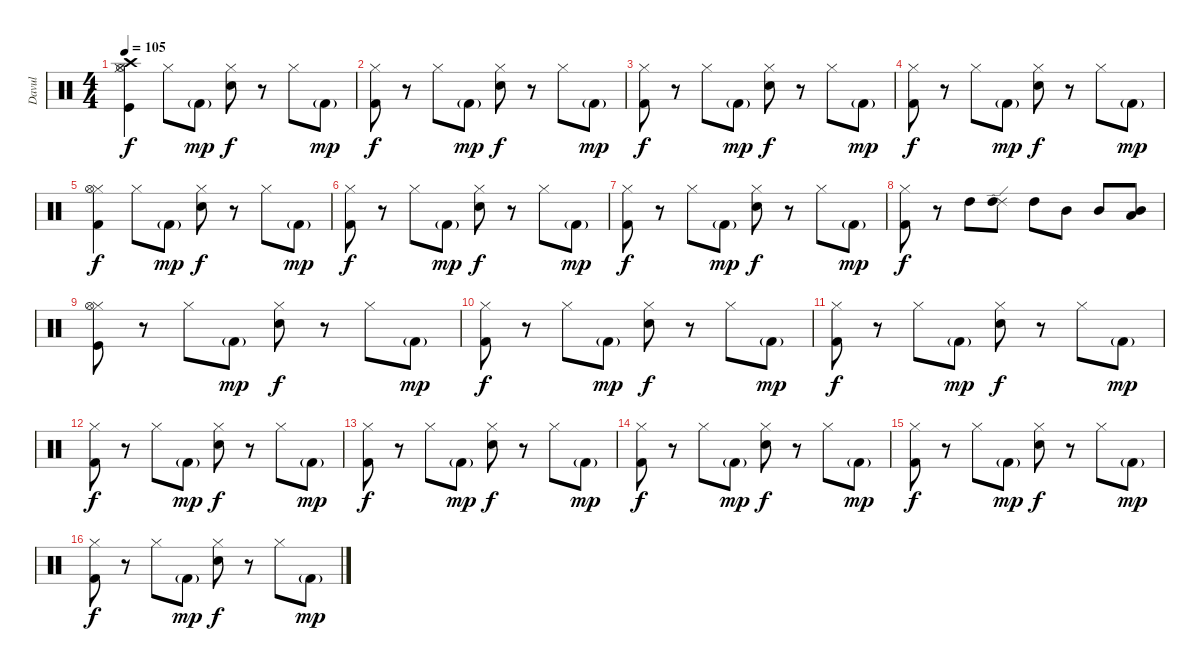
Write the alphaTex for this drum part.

\track ("Davul" "Davul") {instrument percussion}
\staff {score}
\articulation defaults
\ts (4 4)
\tempo 105
\clef neutral
\ks c
("Hi-Hat (closed)" "Kick (hit)" "Hi-Hat (open)" "Crash high (hit)").4{dy f} "Hi-Hat (closed)".8 "Kick (hit) 2"{g}.8{dy mp} ("Hi-Hat (closed)" "Electric Snare (hit)").8{dy f} r.8 "Hi-Hat (closed)".8 "Kick (hit) 2"{g}.8{dy mp} |
("Hi-Hat (closed)" "Kick (hit) 2").8{dy f} r.8 "Hi-Hat (closed)".8 "Kick (hit) 2"{g}.8{dy mp} ("Hi-Hat (closed)" "Electric Snare (hit)").8{dy f} r.8 "Hi-Hat (closed)".8 "Kick (hit) 2"{g}.8{dy mp} |
("Hi-Hat (closed)" "Kick (hit) 2").8{dy f} r.8 "Hi-Hat (closed)".8 "Kick (hit) 2"{g}.8{dy mp} ("Hi-Hat (closed)" "Electric Snare (hit)").8{dy f} r.8 "Hi-Hat (closed)".8 "Kick (hit) 2"{g}.8{dy mp} |
("Hi-Hat (closed)" "Kick (hit) 2").8{dy f} r.8 "Hi-Hat (closed)".8 "Kick (hit) 2"{g}.8{dy mp} ("Hi-Hat (closed)" "Electric Snare (hit)").8{dy f} r.8 "Hi-Hat (closed)".8 "Kick (hit) 2"{g}.8{dy mp} |
("Hi-Hat (closed)" "Kick (hit) 2" "Hi-Hat (open)").4{dy f} "Hi-Hat (closed)".8 "Kick (hit) 2"{g}.8{dy mp} ("Hi-Hat (closed)" "Electric Snare (hit)").8{dy f} r.8 "Hi-Hat (closed)".8 "Kick (hit) 2"{g}.8{dy mp} |
("Hi-Hat (closed)" "Kick (hit) 2").8{dy f} r.8 "Hi-Hat (closed)".8 "Kick (hit) 2"{g}.8{dy mp} ("Hi-Hat (closed)" "Electric Snare (hit)").8{dy f} r.8 "Hi-Hat (closed)".8 "Kick (hit) 2"{g}.8{dy mp} |
("Hi-Hat (closed)" "Kick (hit) 2").8{dy f} r.8 "Hi-Hat (closed)".8 "Kick (hit) 2"{g}.8{dy mp} ("Hi-Hat (closed)" "Electric Snare (hit)").8{dy f} r.8 "Hi-Hat (closed)".8 "Kick (hit) 2"{g}.8{dy mp} |
("Hi-Hat (closed)" "Kick (hit) 2").8{dy f} r.8 "High Tom (hit)".8 ("Ride (edge) 2" "High Tom (hit)").8 "High Tom (hit)".8 "Mid Tom (hit)".8 "Mid Tom (hit)".8 ("Low Floor Tom (hit)" "Mid Tom (hit)").8 |
("Hi-Hat (closed)" "Kick (hit)" "Hi-Hat (open)").8 r.8 "Hi-Hat (closed)".8 "Kick (hit) 2"{g}.8{dy mp} ("Hi-Hat (closed)" "Electric Snare (hit)").8{dy f} r.8 "Hi-Hat (closed)".8 "Kick (hit) 2"{g}.8{dy mp} |
("Hi-Hat (closed)" "Kick (hit) 2").8{dy f} r.8 "Hi-Hat (closed)".8 "Kick (hit) 2"{g}.8{dy mp} ("Hi-Hat (closed)" "Electric Snare (hit)").8{dy f} r.8 "Hi-Hat (closed)".8 "Kick (hit) 2"{g}.8{dy mp} |
("Hi-Hat (closed)" "Kick (hit) 2").8{dy f} r.8 "Hi-Hat (closed)".8 "Kick (hit) 2"{g}.8{dy mp} ("Hi-Hat (closed)" "Electric Snare (hit)").8{dy f} r.8 "Hi-Hat (closed)".8 "Kick (hit) 2"{g}.8{dy mp} |
("Hi-Hat (closed)" "Kick (hit) 2").8{dy f} r.8 "Hi-Hat (closed)".8 "Kick (hit) 2"{g}.8{dy mp} ("Hi-Hat (closed)" "Electric Snare (hit)").8{dy f} r.8 "Hi-Hat (closed)".8 "Kick (hit) 2"{g}.8{dy mp} |
("Hi-Hat (closed)" "Kick (hit) 2").8{dy f} r.8 "Hi-Hat (closed)".8 "Kick (hit) 2"{g}.8{dy mp} ("Hi-Hat (closed)" "Electric Snare (hit)").8{dy f} r.8 "Hi-Hat (closed)".8 "Kick (hit) 2"{g}.8{dy mp} |
("Hi-Hat (closed)" "Kick (hit) 2").8{dy f} r.8 "Hi-Hat (closed)".8 "Kick (hit) 2"{g}.8{dy mp} ("Hi-Hat (closed)" "Electric Snare (hit)").8{dy f} r.8 "Hi-Hat (closed)".8 "Kick (hit) 2"{g}.8{dy mp} |
("Hi-Hat (closed)" "Kick (hit) 2").8{dy f} r.8 "Hi-Hat (closed)".8 "Kick (hit) 2"{g}.8{dy mp} ("Hi-Hat (closed)" "Electric Snare (hit)").8{dy f} r.8 "Hi-Hat (closed)".8 "Kick (hit) 2"{g}.8{dy mp} |
("Hi-Hat (closed)" "Kick (hit) 2").8{dy f} r.8 "Hi-Hat (closed)".8 "Kick (hit) 2"{g}.8{dy mp} ("Hi-Hat (closed)" "Electric Snare (hit)").8{dy f} r.8 "Hi-Hat (closed)".8 "Kick (hit) 2"{g}.8{dy mp}
